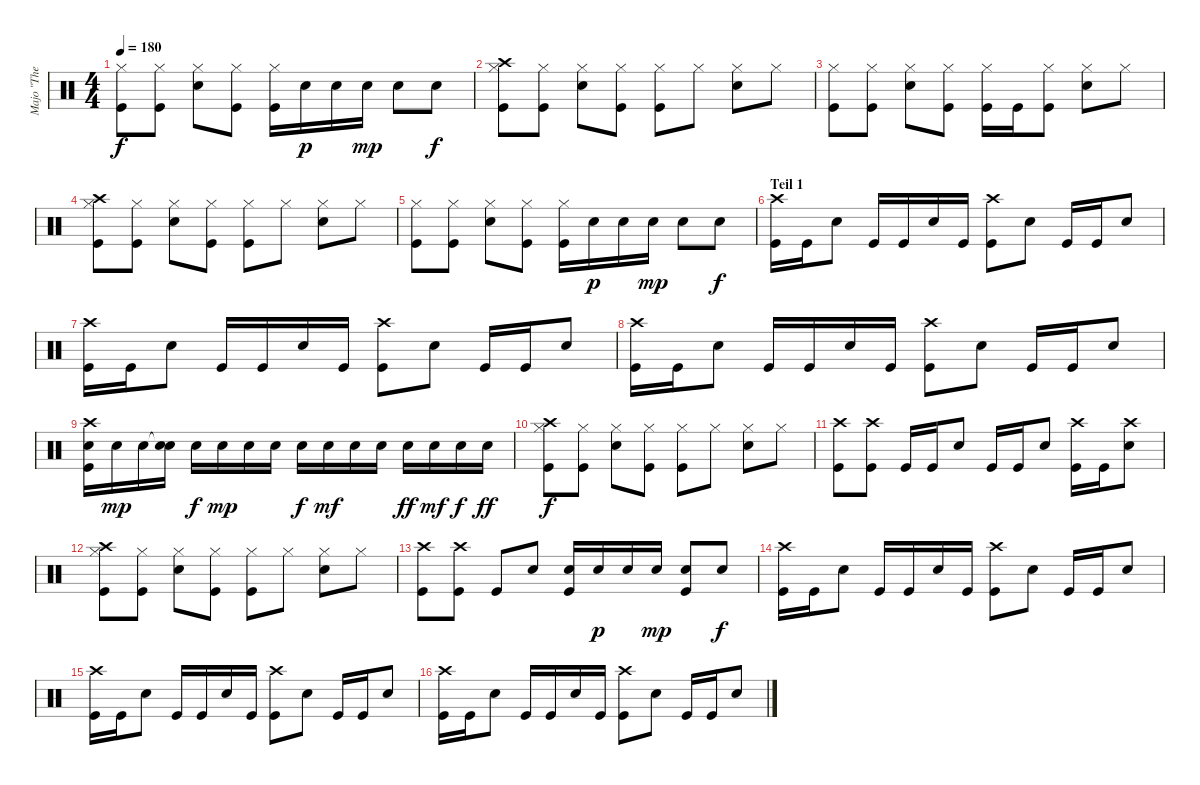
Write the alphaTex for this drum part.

\track ("Majo \"The Dremmel\" Hirt" "Majo \"The ") {instrument percussion}
\staff {score}
\articulation defaults
\ts (4 4)
\tempo 180
\clef neutral
\ks c
("Hi-Hat (closed)" "Kick (hit)").8{dy f} ("Hi-Hat (closed)" "Kick (hit)").8 ("Hi-Hat (closed)" "Electric Snare (hit)").8 ("Hi-Hat (closed)" "Kick (hit)").8 ("Hi-Hat (closed)" "Kick (hit)").16 "Electric Snare (hit)".16{dy p} "Electric Snare (hit)".16 "Electric Snare (hit)".16{dy mp} "Electric Snare (hit)".8 "Electric Snare (hit)".8{dy f} |
("Crash high (hit)" "Hi-Hat (closed)" "Kick (hit)").8 ("Hi-Hat (closed)" "Kick (hit)").8 ("Hi-Hat (closed)" "Electric Snare (hit)").8 ("Hi-Hat (closed)" "Kick (hit)").8 ("Hi-Hat (closed)" "Kick (hit)").8 "Hi-Hat (closed)".8 ("Hi-Hat (closed)" "Electric Snare (hit)").8 "Hi-Hat (closed)".8 |
("Hi-Hat (closed)" "Kick (hit)").8 ("Hi-Hat (closed)" "Kick (hit)").8 ("Hi-Hat (closed)" "Electric Snare (hit)").8 ("Hi-Hat (closed)" "Kick (hit)").8 ("Hi-Hat (closed)" "Kick (hit)").16 "Kick (hit)".16 ("Hi-Hat (closed)" "Kick (hit)").8 ("Hi-Hat (closed)" "Electric Snare (hit)").8 "Hi-Hat (closed)".8 |
("Crash high (hit)" "Hi-Hat (closed)" "Kick (hit)").8 ("Hi-Hat (closed)" "Kick (hit)").8 ("Hi-Hat (closed)" "Electric Snare (hit)").8 ("Hi-Hat (closed)" "Kick (hit)").8 ("Hi-Hat (closed)" "Kick (hit)").8 "Hi-Hat (closed)".8 ("Hi-Hat (closed)" "Electric Snare (hit)").8 "Hi-Hat (closed)".8 |
("Hi-Hat (closed)" "Kick (hit)").8 ("Hi-Hat (closed)" "Kick (hit)").8 ("Hi-Hat (closed)" "Electric Snare (hit)").8 ("Hi-Hat (closed)" "Kick (hit)").8 ("Hi-Hat (closed)" "Kick (hit)").16 "Electric Snare (hit)".16{dy p} "Electric Snare (hit)".16 "Electric Snare (hit)".16{dy mp} "Electric Snare (hit)".8 "Electric Snare (hit)".8{dy f} |
\section ("" "Teil 1")
("Crash high (hit)" "Kick (hit)").16 "Kick (hit)".16 "Electric Snare (hit)".8 "Kick (hit)".16 "Kick (hit)".16 "Electric Snare (hit)".16 "Kick (hit)".16 ("Crash high (hit)" "Kick (hit)").8 "Electric Snare (hit)".8 "Kick (hit)".16 "Kick (hit)".16 "Electric Snare (hit)".8 |
("Crash high (hit)" "Kick (hit)").16 "Kick (hit)".16 "Electric Snare (hit)".8 "Kick (hit)".16 "Kick (hit)".16 "Electric Snare (hit)".16 "Kick (hit)".16 ("Crash high (hit)" "Kick (hit)").8 "Electric Snare (hit)".8 "Kick (hit)".16 "Kick (hit)".16 "Electric Snare (hit)".8 |
("Crash high (hit)" "Kick (hit)").16 "Kick (hit)".16 "Electric Snare (hit)".8 "Kick (hit)".16 "Kick (hit)".16 "Electric Snare (hit)".16 "Kick (hit)".16 ("Crash high (hit)" "Kick (hit)").8 "Electric Snare (hit)".8 "Kick (hit)".16 "Kick (hit)".16 "Electric Snare (hit)".8 |
("Kick (hit)" "Crash high (hit)" "Electric Snare (hit)").16 "Electric Snare (hit)".16{dy mp} "Electric Snare (hit)".16 ("Snare (hit)"{t} "Electric Snare (hit)").16 "Electric Snare (hit)".16{dy f} "Electric Snare (hit)".16{dy mp} "Electric Snare (hit)".16 "Electric Snare (hit)".16 "Electric Snare (hit)".16{dy f} "Electric Snare (hit)".16{dy mf} "Electric Snare (hit)".16 "Electric Snare (hit)".16 "Electric Snare (hit)".16{dy ff} "Electric Snare (hit)".16{dy mf} "Electric Snare (hit)".16{dy f} "Electric Snare (hit)".16{dy ff} |
("Crash high (hit)" "Hi-Hat (closed)" "Kick (hit)").8{dy f} ("Hi-Hat (closed)" "Kick (hit)").8 ("Hi-Hat (closed)" "Electric Snare (hit)").8 ("Hi-Hat (closed)" "Kick (hit)").8 ("Hi-Hat (closed)" "Kick (hit)").8 "Hi-Hat (closed)".8 ("Hi-Hat (closed)" "Electric Snare (hit)").8 "Hi-Hat (closed)".8 |
("Crash high (hit)" "Kick (hit)").8 ("Crash high (hit)" "Kick (hit)").8 "Kick (hit)".16 "Kick (hit)".16 "Electric Snare (hit)".8 "Kick (hit)".16 "Kick (hit)".16 "Electric Snare (hit)".8 ("Crash high (hit)" "Kick (hit)").16 "Kick (hit)".16 ("Crash high (hit)" "Electric Snare (hit)").8 |
("Crash high (hit)" "Hi-Hat (closed)" "Kick (hit)").8 ("Hi-Hat (closed)" "Kick (hit)").8 ("Hi-Hat (closed)" "Electric Snare (hit)").8 ("Hi-Hat (closed)" "Kick (hit)").8 ("Hi-Hat (closed)" "Kick (hit)").8 "Hi-Hat (closed)".8 ("Hi-Hat (closed)" "Electric Snare (hit)").8 "Hi-Hat (closed)".8 |
("Crash high (hit)" "Kick (hit)").8 ("Crash high (hit)" "Kick (hit)").8 "Kick (hit)".8 "Electric Snare (hit)".8 ("Electric Snare (hit)" "Kick (hit)").16 "Electric Snare (hit)".16{dy p} "Electric Snare (hit)".16 "Electric Snare (hit)".16{dy mp} ("Electric Snare (hit)" "Kick (hit)").8 "Electric Snare (hit)".8{dy f} |
("Crash high (hit)" "Kick (hit)").16 "Kick (hit)".16 "Electric Snare (hit)".8 "Kick (hit)".16 "Kick (hit)".16 "Electric Snare (hit)".16 "Kick (hit)".16 ("Crash high (hit)" "Kick (hit)").8 "Electric Snare (hit)".8 "Kick (hit)".16 "Kick (hit)".16 "Electric Snare (hit)".8 |
("Crash high (hit)" "Kick (hit)").16 "Kick (hit)".16 "Electric Snare (hit)".8 "Kick (hit)".16 "Kick (hit)".16 "Electric Snare (hit)".16 "Kick (hit)".16 ("Crash high (hit)" "Kick (hit)").8 "Electric Snare (hit)".8 "Kick (hit)".16 "Kick (hit)".16 "Electric Snare (hit)".8 |
("Crash high (hit)" "Kick (hit)").16 "Kick (hit)".16 "Electric Snare (hit)".8 "Kick (hit)".16 "Kick (hit)".16 "Electric Snare (hit)".16 "Kick (hit)".16 ("Crash high (hit)" "Kick (hit)").8 "Electric Snare (hit)".8 "Kick (hit)".16 "Kick (hit)".16 "Electric Snare (hit)".8
